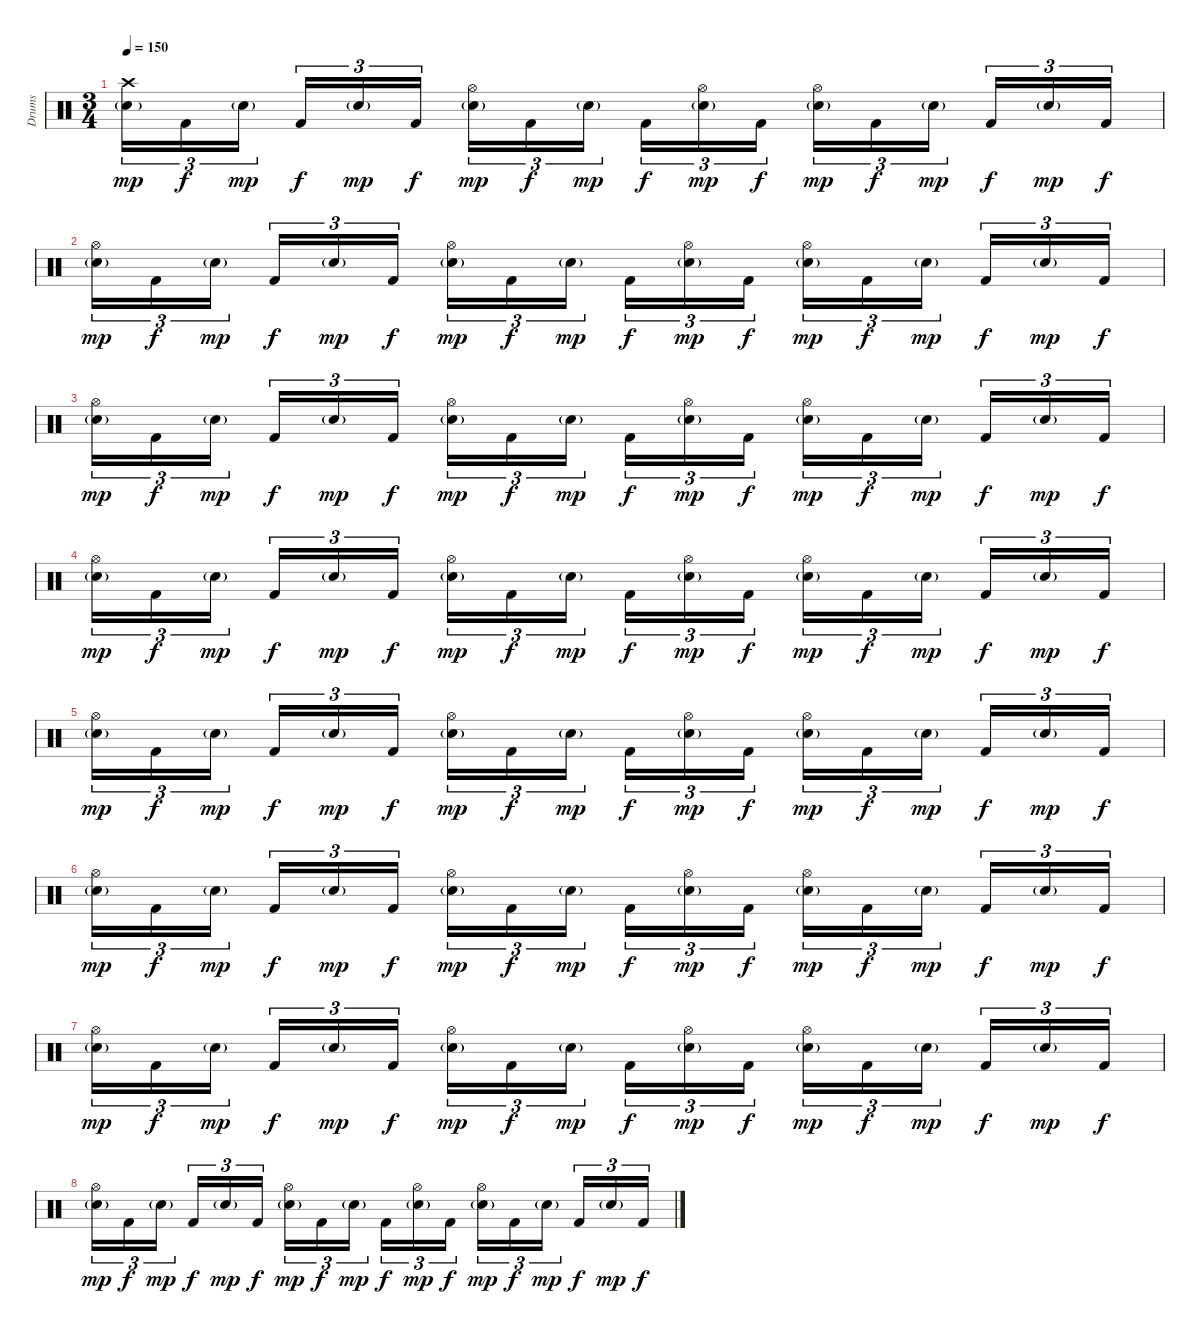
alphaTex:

\track ("Drums" "Drums") {instrument percussion}
\staff {score}
\articulation defaults
\ts (3 4)
\tempo 150
\clef neutral
\ks c
("Electric Snare (hit)"{g} "Crash high (hit)").16{tu (3 2) dy mp} "Kick (hit) 2".16{tu (3 2) dy f} "Electric Snare (hit)"{g}.16{tu (3 2) dy mp beam splitsecondary} "Kick (hit) 2".16{tu (3 2) dy f} "Electric Snare (hit)"{g}.16{tu (3 2) dy mp} "Kick (hit) 2".16{tu (3 2) dy f} ("Electric Snare (hit)"{g} "Hi-Hat (open)").16{tu (3 2) dy mp} "Kick (hit) 2".16{tu (3 2) dy f} "Electric Snare (hit)"{g}.16{tu (3 2) dy mp beam splitsecondary} "Kick (hit) 2".16{tu (3 2) dy f} ("Electric Snare (hit)"{g} "Hi-Hat (open)").16{tu (3 2) dy mp} "Kick (hit) 2".16{tu (3 2) dy f} ("Electric Snare (hit)"{g} "Hi-Hat (open)").16{tu (3 2) dy mp} "Kick (hit) 2".16{tu (3 2) dy f} "Electric Snare (hit)"{g}.16{tu (3 2) dy mp beam splitsecondary} "Kick (hit) 2".16{tu (3 2) dy f} "Electric Snare (hit)"{g}.16{tu (3 2) dy mp} "Kick (hit) 2".16{tu (3 2) dy f} |
("Electric Snare (hit)"{g} "Hi-Hat (open)").16{tu (3 2) dy mp} "Kick (hit) 2".16{tu (3 2) dy f} "Electric Snare (hit)"{g}.16{tu (3 2) dy mp beam splitsecondary} "Kick (hit) 2".16{tu (3 2) dy f} "Electric Snare (hit)"{g}.16{tu (3 2) dy mp} "Kick (hit) 2".16{tu (3 2) dy f} ("Electric Snare (hit)"{g} "Hi-Hat (open)").16{tu (3 2) dy mp} "Kick (hit) 2".16{tu (3 2) dy f} "Electric Snare (hit)"{g}.16{tu (3 2) dy mp beam splitsecondary} "Kick (hit) 2".16{tu (3 2) dy f} ("Electric Snare (hit)"{g} "Hi-Hat (open)").16{tu (3 2) dy mp} "Kick (hit) 2".16{tu (3 2) dy f} ("Electric Snare (hit)"{g} "Hi-Hat (open)").16{tu (3 2) dy mp} "Kick (hit) 2".16{tu (3 2) dy f} "Electric Snare (hit)"{g}.16{tu (3 2) dy mp beam splitsecondary} "Kick (hit) 2".16{tu (3 2) dy f} "Electric Snare (hit)"{g}.16{tu (3 2) dy mp} "Kick (hit) 2".16{tu (3 2) dy f} |
("Electric Snare (hit)"{g} "Hi-Hat (open)").16{tu (3 2) dy mp} "Kick (hit) 2".16{tu (3 2) dy f} "Electric Snare (hit)"{g}.16{tu (3 2) dy mp beam splitsecondary} "Kick (hit) 2".16{tu (3 2) dy f} "Electric Snare (hit)"{g}.16{tu (3 2) dy mp} "Kick (hit) 2".16{tu (3 2) dy f} ("Electric Snare (hit)"{g} "Hi-Hat (open)").16{tu (3 2) dy mp} "Kick (hit) 2".16{tu (3 2) dy f} "Electric Snare (hit)"{g}.16{tu (3 2) dy mp beam splitsecondary} "Kick (hit) 2".16{tu (3 2) dy f} ("Electric Snare (hit)"{g} "Hi-Hat (open)").16{tu (3 2) dy mp} "Kick (hit) 2".16{tu (3 2) dy f} ("Electric Snare (hit)"{g} "Hi-Hat (open)").16{tu (3 2) dy mp} "Kick (hit) 2".16{tu (3 2) dy f} "Electric Snare (hit)"{g}.16{tu (3 2) dy mp beam splitsecondary} "Kick (hit) 2".16{tu (3 2) dy f} "Electric Snare (hit)"{g}.16{tu (3 2) dy mp} "Kick (hit) 2".16{tu (3 2) dy f} |
("Electric Snare (hit)"{g} "Hi-Hat (open)").16{tu (3 2) dy mp} "Kick (hit) 2".16{tu (3 2) dy f} "Electric Snare (hit)"{g}.16{tu (3 2) dy mp beam splitsecondary} "Kick (hit) 2".16{tu (3 2) dy f} "Electric Snare (hit)"{g}.16{tu (3 2) dy mp} "Kick (hit) 2".16{tu (3 2) dy f} ("Electric Snare (hit)"{g} "Hi-Hat (open)").16{tu (3 2) dy mp} "Kick (hit) 2".16{tu (3 2) dy f} "Electric Snare (hit)"{g}.16{tu (3 2) dy mp beam splitsecondary} "Kick (hit) 2".16{tu (3 2) dy f} ("Electric Snare (hit)"{g} "Hi-Hat (open)").16{tu (3 2) dy mp} "Kick (hit) 2".16{tu (3 2) dy f} ("Electric Snare (hit)"{g} "Hi-Hat (open)").16{tu (3 2) dy mp} "Kick (hit) 2".16{tu (3 2) dy f} "Electric Snare (hit)"{g}.16{tu (3 2) dy mp beam splitsecondary} "Kick (hit) 2".16{tu (3 2) dy f} "Electric Snare (hit)"{g}.16{tu (3 2) dy mp} "Kick (hit) 2".16{tu (3 2) dy f} |
("Electric Snare (hit)"{g} "Hi-Hat (open)").16{tu (3 2) dy mp} "Kick (hit) 2".16{tu (3 2) dy f} "Electric Snare (hit)"{g}.16{tu (3 2) dy mp beam splitsecondary} "Kick (hit) 2".16{tu (3 2) dy f} "Electric Snare (hit)"{g}.16{tu (3 2) dy mp} "Kick (hit) 2".16{tu (3 2) dy f} ("Electric Snare (hit)"{g} "Hi-Hat (open)").16{tu (3 2) dy mp} "Kick (hit) 2".16{tu (3 2) dy f} "Electric Snare (hit)"{g}.16{tu (3 2) dy mp beam splitsecondary} "Kick (hit) 2".16{tu (3 2) dy f} ("Electric Snare (hit)"{g} "Hi-Hat (open)").16{tu (3 2) dy mp} "Kick (hit) 2".16{tu (3 2) dy f} ("Electric Snare (hit)"{g} "Hi-Hat (open)").16{tu (3 2) dy mp} "Kick (hit) 2".16{tu (3 2) dy f} "Electric Snare (hit)"{g}.16{tu (3 2) dy mp beam splitsecondary} "Kick (hit) 2".16{tu (3 2) dy f} "Electric Snare (hit)"{g}.16{tu (3 2) dy mp} "Kick (hit) 2".16{tu (3 2) dy f} |
("Electric Snare (hit)"{g} "Hi-Hat (open)").16{tu (3 2) dy mp} "Kick (hit) 2".16{tu (3 2) dy f} "Electric Snare (hit)"{g}.16{tu (3 2) dy mp beam splitsecondary} "Kick (hit) 2".16{tu (3 2) dy f} "Electric Snare (hit)"{g}.16{tu (3 2) dy mp} "Kick (hit) 2".16{tu (3 2) dy f} ("Electric Snare (hit)"{g} "Hi-Hat (open)").16{tu (3 2) dy mp} "Kick (hit) 2".16{tu (3 2) dy f} "Electric Snare (hit)"{g}.16{tu (3 2) dy mp beam splitsecondary} "Kick (hit) 2".16{tu (3 2) dy f} ("Electric Snare (hit)"{g} "Hi-Hat (open)").16{tu (3 2) dy mp} "Kick (hit) 2".16{tu (3 2) dy f} ("Electric Snare (hit)"{g} "Hi-Hat (open)").16{tu (3 2) dy mp} "Kick (hit) 2".16{tu (3 2) dy f} "Electric Snare (hit)"{g}.16{tu (3 2) dy mp beam splitsecondary} "Kick (hit) 2".16{tu (3 2) dy f} "Electric Snare (hit)"{g}.16{tu (3 2) dy mp} "Kick (hit) 2".16{tu (3 2) dy f} |
("Electric Snare (hit)"{g} "Hi-Hat (open)").16{tu (3 2) dy mp} "Kick (hit) 2".16{tu (3 2) dy f} "Electric Snare (hit)"{g}.16{tu (3 2) dy mp beam splitsecondary} "Kick (hit) 2".16{tu (3 2) dy f} "Electric Snare (hit)"{g}.16{tu (3 2) dy mp} "Kick (hit) 2".16{tu (3 2) dy f} ("Electric Snare (hit)"{g} "Hi-Hat (open)").16{tu (3 2) dy mp} "Kick (hit) 2".16{tu (3 2) dy f} "Electric Snare (hit)"{g}.16{tu (3 2) dy mp beam splitsecondary} "Kick (hit) 2".16{tu (3 2) dy f} ("Electric Snare (hit)"{g} "Hi-Hat (open)").16{tu (3 2) dy mp} "Kick (hit) 2".16{tu (3 2) dy f} ("Electric Snare (hit)"{g} "Hi-Hat (open)").16{tu (3 2) dy mp} "Kick (hit) 2".16{tu (3 2) dy f} "Electric Snare (hit)"{g}.16{tu (3 2) dy mp beam splitsecondary} "Kick (hit) 2".16{tu (3 2) dy f} "Electric Snare (hit)"{g}.16{tu (3 2) dy mp} "Kick (hit) 2".16{tu (3 2) dy f} |
("Electric Snare (hit)"{g} "Hi-Hat (open)").16{tu (3 2) dy mp} "Kick (hit) 2".16{tu (3 2) dy f} "Electric Snare (hit)"{g}.16{tu (3 2) dy mp beam splitsecondary} "Kick (hit) 2".16{tu (3 2) dy f} "Electric Snare (hit)"{g}.16{tu (3 2) dy mp} "Kick (hit) 2".16{tu (3 2) dy f} ("Electric Snare (hit)"{g} "Hi-Hat (open)").16{tu (3 2) dy mp} "Kick (hit) 2".16{tu (3 2) dy f} "Electric Snare (hit)"{g}.16{tu (3 2) dy mp beam splitsecondary} "Kick (hit) 2".16{tu (3 2) dy f} ("Electric Snare (hit)"{g} "Hi-Hat (open)").16{tu (3 2) dy mp} "Kick (hit) 2".16{tu (3 2) dy f} ("Electric Snare (hit)"{g} "Hi-Hat (open)").16{tu (3 2) dy mp} "Kick (hit) 2".16{tu (3 2) dy f} "Electric Snare (hit)"{g}.16{tu (3 2) dy mp beam splitsecondary} "Kick (hit) 2".16{tu (3 2) dy f} "Electric Snare (hit)"{g}.16{tu (3 2) dy mp} "Kick (hit) 2".16{tu (3 2) dy f}
